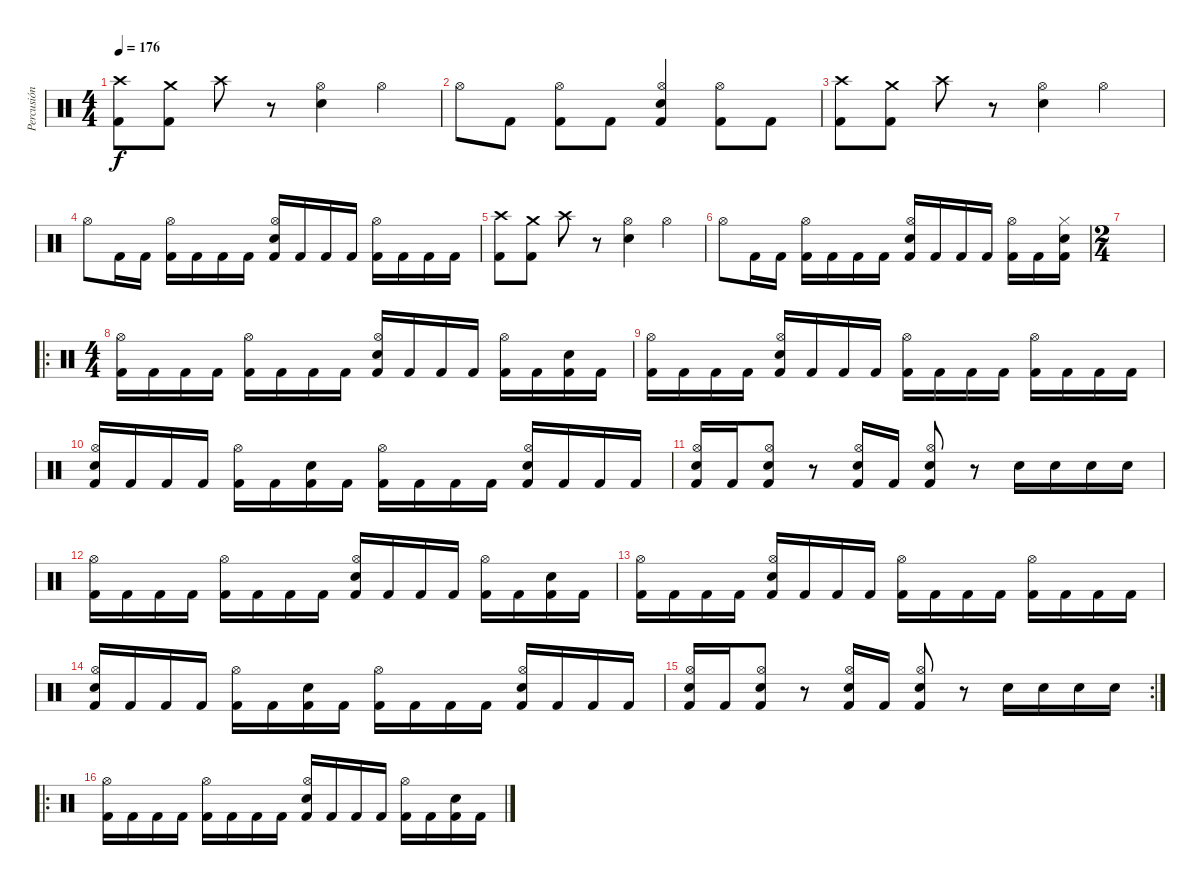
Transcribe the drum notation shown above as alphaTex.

\track ("Percusión" "Percusión") {instrument percussion}
\staff {score}
\articulation defaults
\ts (4 4)
\tempo 176
\clef neutral
\ks c
("Crash high (hit)" "Kick (hit) 2").8{dy f} ("Crash medium (hit)" "Kick (hit) 2").8 "Crash high (hit)".8 r.8 ("Hi-Hat (open)" "Electric Snare (hit)").4 "Hi-Hat (open)".4 |
"Hi-Hat (open)".8 "Kick (hit) 2".8 ("Hi-Hat (open)" "Kick (hit) 2").8 "Kick (hit) 2".8 ("Hi-Hat (open)" "Electric Snare (hit)" "Kick (hit) 2").4 ("Hi-Hat (open)" "Kick (hit) 2").8 "Kick (hit) 2".8 |
("Crash high (hit)" "Kick (hit) 2").8 ("Crash medium (hit)" "Kick (hit) 2").8 "Crash high (hit)".8 r.8 ("Hi-Hat (open)" "Electric Snare (hit)").4 "Hi-Hat (open)".4 |
"Hi-Hat (open)".8 "Kick (hit) 2".16 "Kick (hit) 2".16 ("Hi-Hat (open)" "Kick (hit) 2").16 "Kick (hit) 2".16 "Kick (hit) 2".16 "Kick (hit) 2".16 ("Hi-Hat (open)" "Electric Snare (hit)" "Kick (hit) 2").16 "Kick (hit) 2".16 "Kick (hit) 2".16 "Kick (hit) 2".16 ("Hi-Hat (open)" "Kick (hit) 2").16 "Kick (hit) 2".16 "Kick (hit) 2".16 "Kick (hit) 2".16 |
("Crash high (hit)" "Kick (hit) 2").8 ("Crash medium (hit)" "Kick (hit) 2").8 "Crash high (hit)".8 r.8 ("Hi-Hat (open)" "Electric Snare (hit)").4 "Hi-Hat (open)".4 |
"Hi-Hat (open)".8 "Kick (hit) 2".16 "Kick (hit) 2".16 ("Hi-Hat (open)" "Kick (hit) 2").16 "Kick (hit) 2".16 "Kick (hit) 2".16 "Kick (hit) 2".16 ("Hi-Hat (open)" "Electric Snare (hit)" "Kick (hit) 2").16 "Kick (hit) 2".16 "Kick (hit) 2".16 "Kick (hit) 2".16 ("Hi-Hat (open)" "Kick (hit) 2").16 "Kick (hit) 2".16 ("Hi-Hat (closed)" "Electric Snare (hit)" "Kick (hit) 2").16 |
\ts (2 4)
|
\ro
\ts (4 4)
("Hi-Hat (open)" "Kick (hit) 2").16 "Kick (hit) 2".16 "Kick (hit) 2".16 "Kick (hit) 2".16 ("Hi-Hat (open)" "Kick (hit) 2").16 "Kick (hit) 2".16 "Kick (hit) 2".16 "Kick (hit) 2".16 ("Hi-Hat (open)" "Electric Snare (hit)" "Kick (hit) 2").16 "Kick (hit) 2".16 "Kick (hit) 2".16 "Kick (hit) 2".16 ("Hi-Hat (open)" "Kick (hit) 2").16 "Kick (hit) 2".16 ("Electric Snare (hit)" "Kick (hit) 2").16 "Kick (hit) 2".16 |
("Hi-Hat (open)" "Kick (hit) 2").16 "Kick (hit) 2".16 "Kick (hit) 2".16 "Kick (hit) 2".16 ("Hi-Hat (open)" "Electric Snare (hit)" "Kick (hit) 2").16 "Kick (hit) 2".16 "Kick (hit) 2".16 "Kick (hit) 2".16 ("Hi-Hat (open)" "Kick (hit) 2").16 "Kick (hit) 2".16 "Kick (hit) 2".16 "Kick (hit) 2".16 ("Hi-Hat (open)" "Kick (hit) 2").16 "Kick (hit) 2".16 "Kick (hit) 2".16 "Kick (hit) 2".16 |
("Hi-Hat (open)" "Electric Snare (hit)" "Kick (hit) 2").16 "Kick (hit) 2".16 "Kick (hit) 2".16 "Kick (hit) 2".16 ("Hi-Hat (open)" "Kick (hit) 2").16 "Kick (hit) 2".16 ("Electric Snare (hit)" "Kick (hit) 2").16 "Kick (hit) 2".16 ("Hi-Hat (open)" "Kick (hit) 2").16 "Kick (hit) 2".16 "Kick (hit) 2".16 "Kick (hit) 2".16 ("Hi-Hat (open)" "Electric Snare (hit)" "Kick (hit) 2").16 "Kick (hit) 2".16 "Kick (hit) 2".16 "Kick (hit) 2".16 |
("Hi-Hat (open)" "Electric Snare (hit)" "Kick (hit) 2").16 "Kick (hit) 2".16 ("Hi-Hat (open)" "Electric Snare (hit)" "Kick (hit) 2").8 r.8 ("Hi-Hat (open)" "Electric Snare (hit)" "Kick (hit) 2").16 "Kick (hit) 2".16 ("Hi-Hat (open)" "Electric Snare (hit)" "Kick (hit) 2").8 r.8 "Electric Snare (hit)".16 "Electric Snare (hit)".16 "Electric Snare (hit)".16 "Electric Snare (hit)".16 |
("Hi-Hat (open)" "Kick (hit) 2").16 "Kick (hit) 2".16 "Kick (hit) 2".16 "Kick (hit) 2".16 ("Hi-Hat (open)" "Kick (hit) 2").16 "Kick (hit) 2".16 "Kick (hit) 2".16 "Kick (hit) 2".16 ("Hi-Hat (open)" "Electric Snare (hit)" "Kick (hit) 2").16 "Kick (hit) 2".16 "Kick (hit) 2".16 "Kick (hit) 2".16 ("Hi-Hat (open)" "Kick (hit) 2").16 "Kick (hit) 2".16 ("Electric Snare (hit)" "Kick (hit) 2").16 "Kick (hit) 2".16 |
("Hi-Hat (open)" "Kick (hit) 2").16 "Kick (hit) 2".16 "Kick (hit) 2".16 "Kick (hit) 2".16 ("Hi-Hat (open)" "Electric Snare (hit)" "Kick (hit) 2").16 "Kick (hit) 2".16 "Kick (hit) 2".16 "Kick (hit) 2".16 ("Hi-Hat (open)" "Kick (hit) 2").16 "Kick (hit) 2".16 "Kick (hit) 2".16 "Kick (hit) 2".16 ("Hi-Hat (open)" "Kick (hit) 2").16 "Kick (hit) 2".16 "Kick (hit) 2".16 "Kick (hit) 2".16 |
("Hi-Hat (open)" "Electric Snare (hit)" "Kick (hit) 2").16 "Kick (hit) 2".16 "Kick (hit) 2".16 "Kick (hit) 2".16 ("Hi-Hat (open)" "Kick (hit) 2").16 "Kick (hit) 2".16 ("Electric Snare (hit)" "Kick (hit) 2").16 "Kick (hit) 2".16 ("Hi-Hat (open)" "Kick (hit) 2").16 "Kick (hit) 2".16 "Kick (hit) 2".16 "Kick (hit) 2".16 ("Hi-Hat (open)" "Electric Snare (hit)" "Kick (hit) 2").16 "Kick (hit) 2".16 "Kick (hit) 2".16 "Kick (hit) 2".16 |
\rc 2
("Hi-Hat (open)" "Electric Snare (hit)" "Kick (hit) 2").16 "Kick (hit) 2".16 ("Hi-Hat (open)" "Electric Snare (hit)" "Kick (hit) 2").8 r.8 ("Hi-Hat (open)" "Electric Snare (hit)" "Kick (hit) 2").16 "Kick (hit) 2".16 ("Hi-Hat (open)" "Electric Snare (hit)" "Kick (hit) 2").8 r.8 "Electric Snare (hit)".16 "Electric Snare (hit)".16 "Electric Snare (hit)".16 "Electric Snare (hit)".16 |
\ro
("Hi-Hat (open)" "Kick (hit) 2").16 "Kick (hit) 2".16 "Kick (hit) 2".16 "Kick (hit) 2".16 ("Hi-Hat (open)" "Kick (hit) 2").16 "Kick (hit) 2".16 "Kick (hit) 2".16 "Kick (hit) 2".16 ("Hi-Hat (open)" "Electric Snare (hit)" "Kick (hit) 2").16 "Kick (hit) 2".16 "Kick (hit) 2".16 "Kick (hit) 2".16 ("Hi-Hat (open)" "Kick (hit) 2").16 "Kick (hit) 2".16 ("Electric Snare (hit)" "Kick (hit) 2").16 "Kick (hit) 2".16
